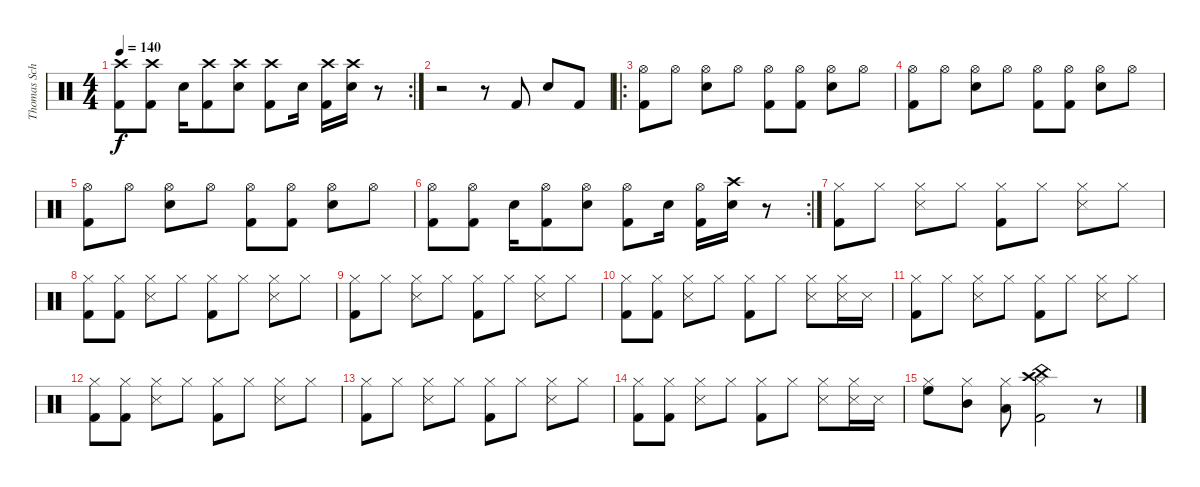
\track ("Thomas Schnitzler" "Thomas Sch") {instrument percussion}
\staff {score}
\articulation defaults
\rc 2
\ts (4 4)
\tempo 140
\clef neutral
\ks c
("Crash high (hit)" "Kick (hit) 2").8{dy f} ("Crash high (hit)" "Kick (hit) 2").8 "Snare (hit) 2".16 ("Crash high (hit)" "Kick (hit) 2").8 ("Crash high (hit)" "Snare (hit) 2").8 ("Crash high (hit)" "Kick (hit) 2").8 "Snare (hit) 2".16 ("Crash high (hit)" "Kick (hit) 2").16 ("Crash high (hit)" "Snare (hit) 2").16 r.8 |
r.2 r.8 "Kick (hit) 2".8 "Snare (hit) 2".8 "Kick (hit) 2".8 |
\ro
("Hi-Hat (open)" "Kick (hit) 2").8 "Hi-Hat (open)".8 ("Hi-Hat (open)" "Snare (hit) 2").8 "Hi-Hat (open)".8 ("Hi-Hat (open)" "Kick (hit) 2").8 ("Hi-Hat (open)" "Kick (hit) 2").8 ("Hi-Hat (open)" "Snare (hit) 2").8 "Hi-Hat (open)".8 |
("Hi-Hat (open)" "Kick (hit) 2").8 "Hi-Hat (open)".8 ("Hi-Hat (open)" "Snare (hit) 2").8 "Hi-Hat (open)".8 ("Hi-Hat (open)" "Kick (hit) 2").8 ("Hi-Hat (open)" "Kick (hit) 2").8 ("Hi-Hat (open)" "Snare (hit) 2").8 "Hi-Hat (open)".8 |
("Hi-Hat (open)" "Kick (hit) 2").8 "Hi-Hat (open)".8 ("Hi-Hat (open)" "Snare (hit) 2").8 "Hi-Hat (open)".8 ("Hi-Hat (open)" "Kick (hit) 2").8 ("Hi-Hat (open)" "Kick (hit) 2").8 ("Hi-Hat (open)" "Snare (hit) 2").8 "Hi-Hat (open)".8 |
\rc 2
("Hi-Hat (open)" "Kick (hit) 2").8 ("Hi-Hat (open)" "Kick (hit) 2").8 "Snare (hit) 2".16 ("Hi-Hat (open)" "Kick (hit) 2").8 ("Hi-Hat (open)" "Snare (hit) 2").8 ("Hi-Hat (open)" "Kick (hit) 2").8 "Snare (hit) 2".16 ("Hi-Hat (open)" "Kick (hit) 2").16 ("Crash high (hit)" "Snare (hit) 2").16 r.8 |
("Hi-Hat (closed)" "Kick (hit) 2").8 "Hi-Hat (closed)".8 ("Hi-Hat (closed)" "Snare (side stick) 3").8 "Hi-Hat (closed)".8 ("Hi-Hat (closed)" "Kick (hit) 2").8 "Hi-Hat (closed)".8 ("Hi-Hat (closed)" "Snare (side stick) 3").8 "Hi-Hat (closed)".8 |
("Hi-Hat (closed)" "Kick (hit) 2").8 ("Hi-Hat (closed)" "Kick (hit) 2").8 ("Hi-Hat (closed)" "Snare (side stick) 3").8 "Hi-Hat (closed)".8 ("Hi-Hat (closed)" "Kick (hit) 2").8 "Hi-Hat (closed)".8 ("Hi-Hat (closed)" "Snare (side stick) 3").8 "Hi-Hat (closed)".8 |
("Hi-Hat (closed)" "Kick (hit) 2").8 "Hi-Hat (closed)".8 ("Hi-Hat (closed)" "Snare (side stick) 3").8 "Hi-Hat (closed)".8 ("Hi-Hat (closed)" "Kick (hit) 2").8 "Hi-Hat (closed)".8 ("Hi-Hat (closed)" "Snare (side stick) 3").8 "Hi-Hat (closed)".8 |
("Hi-Hat (closed)" "Kick (hit) 2").8 ("Hi-Hat (closed)" "Kick (hit) 2").8 ("Hi-Hat (closed)" "Snare (side stick) 3").8 "Hi-Hat (closed)".8 ("Hi-Hat (closed)" "Kick (hit) 2").8 "Hi-Hat (closed)".8 ("Hi-Hat (closed)" "Snare (side stick) 3").8 ("Hi-Hat (closed)" "Snare (side stick) 3").16 "Snare (side stick) 3".16 |
("Hi-Hat (closed)" "Kick (hit) 2").8 "Hi-Hat (closed)".8 ("Hi-Hat (closed)" "Snare (side stick) 3").8 "Hi-Hat (closed)".8 ("Hi-Hat (closed)" "Kick (hit) 2").8 "Hi-Hat (closed)".8 ("Hi-Hat (closed)" "Snare (side stick) 3").8 "Hi-Hat (closed)".8 |
("Hi-Hat (closed)" "Kick (hit) 2").8 ("Hi-Hat (closed)" "Kick (hit) 2").8 ("Hi-Hat (closed)" "Snare (side stick) 3").8 "Hi-Hat (closed)".8 ("Hi-Hat (closed)" "Kick (hit) 2").8 "Hi-Hat (closed)".8 ("Hi-Hat (closed)" "Snare (side stick) 3").8 "Hi-Hat (closed)".8 |
("Hi-Hat (closed)" "Kick (hit) 2").8 "Hi-Hat (closed)".8 ("Hi-Hat (closed)" "Snare (side stick) 3").8 "Hi-Hat (closed)".8 ("Hi-Hat (closed)" "Kick (hit) 2").8 "Hi-Hat (closed)".8 ("Hi-Hat (closed)" "Snare (side stick) 3").8 "Hi-Hat (closed)".8 |
("Hi-Hat (closed)" "Kick (hit) 2").8 ("Hi-Hat (closed)" "Kick (hit) 2").8 ("Hi-Hat (closed)" "Snare (side stick) 3").8 "Hi-Hat (closed)".8 ("Hi-Hat (closed)" "Kick (hit) 2").8 "Hi-Hat (closed)".8 ("Hi-Hat (closed)" "Snare (side stick) 3").8 ("Hi-Hat (closed)" "Snare (side stick) 3").16 "Snare (side stick) 3".16 |
("Hi-Hat (closed)" "High Floor Tom (hit)").8 ("Hi-Hat (closed)" "Mid Tom (hit)").8 ("Hi-Hat (closed)" "Low Tom (hit)").8 ("Hi-Hat (closed)" "China (hit)" "Crash high (hit)" "Kick (hit) 2").2 r.8
